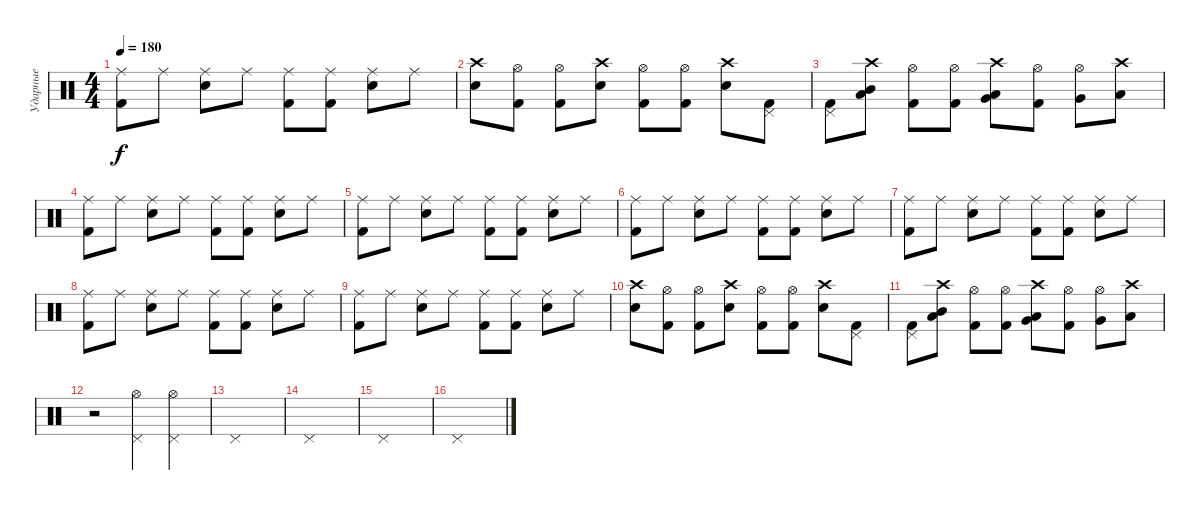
\track ("Ударные" "Ударные") {instrument percussion}
\staff {score}
\articulation defaults
\ts (4 4)
\tempo 180
\clef neutral
\ks c
("Kick (hit) 2" "Ride (middle)").8{dy f} "Ride (middle)".8 ("Electric Snare (hit)" "Ride (middle)").8 "Ride (middle)".8 ("Ride (middle)" "Kick (hit) 2").8 ("Ride (middle)" "Kick (hit) 2").8 ("Electric Snare (hit)" "Ride (middle)").8 "Ride (middle)".8 |
("Electric Snare (hit)" "Crash high (hit)").8 ("Kick (hit) 2" "Hi-Hat (open)").8 ("Kick (hit) 2" "Hi-Hat (open)").8 ("Electric Snare (hit)" "Crash high (hit)").8 ("Kick (hit) 2" "Hi-Hat (open)").8 ("Kick (hit) 2" "Hi-Hat (open)").8 ("Electric Snare (hit)" "Crash high (hit)").8 ("Pedal Hi-Hat (hit)" "Kick (hit) 2").8 |
("Kick (hit) 2" "Pedal Hi-Hat (hit)").8 ("Low Tom (hit)" "Crash high (hit)" "Mid Tom (hit)").8 ("Kick (hit) 2" "Hi-Hat (open)").8 ("Kick (hit) 2" "Hi-Hat (open)").8 ("Very Low Tom (hit)" "Crash high (hit)" "Low Tom (hit)").8 ("Kick (hit) 2" "Hi-Hat (open)").8 ("Very Low Tom (hit)" "Hi-Hat (open)").8 ("Crash high (hit)" "Low Floor Tom (hit)").8 |
("Kick (hit) 2" "Ride (middle)").8 "Ride (middle)".8 ("Electric Snare (hit)" "Ride (middle)").8 "Ride (middle)".8 ("Ride (middle)" "Kick (hit) 2").8 ("Ride (middle)" "Kick (hit) 2").8 ("Electric Snare (hit)" "Ride (middle)").8 "Ride (middle)".8 |
("Kick (hit) 2" "Ride (middle)").8 "Ride (middle)".8 ("Electric Snare (hit)" "Ride (middle)").8 "Ride (middle)".8 ("Ride (middle)" "Kick (hit) 2").8 ("Ride (middle)" "Kick (hit) 2").8 ("Electric Snare (hit)" "Ride (middle)").8 "Ride (middle)".8 |
("Kick (hit) 2" "Ride (middle)").8 "Ride (middle)".8 ("Electric Snare (hit)" "Ride (middle)").8 "Ride (middle)".8 ("Ride (middle)" "Kick (hit) 2").8 ("Ride (middle)" "Kick (hit) 2").8 ("Electric Snare (hit)" "Ride (middle)").8 "Ride (middle)".8 |
("Kick (hit) 2" "Ride (middle)").8 "Ride (middle)".8 ("Electric Snare (hit)" "Ride (middle)").8 "Ride (middle)".8 ("Ride (middle)" "Kick (hit) 2").8 ("Ride (middle)" "Kick (hit) 2").8 ("Electric Snare (hit)" "Ride (middle)").8 "Ride (middle)".8 |
("Kick (hit) 2" "Ride (middle)").8 "Ride (middle)".8 ("Electric Snare (hit)" "Ride (middle)").8 "Ride (middle)".8 ("Ride (middle)" "Kick (hit) 2").8 ("Ride (middle)" "Kick (hit) 2").8 ("Electric Snare (hit)" "Ride (middle)").8 "Ride (middle)".8 |
("Kick (hit) 2" "Ride (middle)").8 "Ride (middle)".8 ("Electric Snare (hit)" "Ride (middle)").8 "Ride (middle)".8 ("Ride (middle)" "Kick (hit) 2").8 ("Ride (middle)" "Kick (hit) 2").8 ("Electric Snare (hit)" "Ride (middle)").8 "Ride (middle)".8 |
("Electric Snare (hit)" "Crash high (hit)").8 ("Kick (hit) 2" "Hi-Hat (open)").8 ("Kick (hit) 2" "Hi-Hat (open)").8 ("Electric Snare (hit)" "Crash high (hit)").8 ("Kick (hit) 2" "Hi-Hat (open)").8 ("Kick (hit) 2" "Hi-Hat (open)").8 ("Electric Snare (hit)" "Crash high (hit)").8 ("Pedal Hi-Hat (hit)" "Kick (hit) 2").8 |
("Kick (hit) 2" "Pedal Hi-Hat (hit)").8 ("Low Tom (hit)" "Crash high (hit)" "Mid Tom (hit)").8 ("Kick (hit) 2" "Hi-Hat (open)").8 ("Kick (hit) 2" "Hi-Hat (open)").8 ("Very Low Tom (hit)" "Crash high (hit)" "Low Tom (hit)").8 ("Kick (hit) 2" "Hi-Hat (open)").8 ("Very Low Tom (hit)" "Hi-Hat (open)").8 ("Crash high (hit)" "Low Floor Tom (hit)").8 |
r.2 ("Pedal Hi-Hat (hit)" "Hi-Hat (open)").4 ("Pedal Hi-Hat (hit)" "Hi-Hat (open)").4 |
"Pedal Hi-Hat (hit)".1 |
"Pedal Hi-Hat (hit)".1 |
"Pedal Hi-Hat (hit)".1 |
"Pedal Hi-Hat (hit)".1
